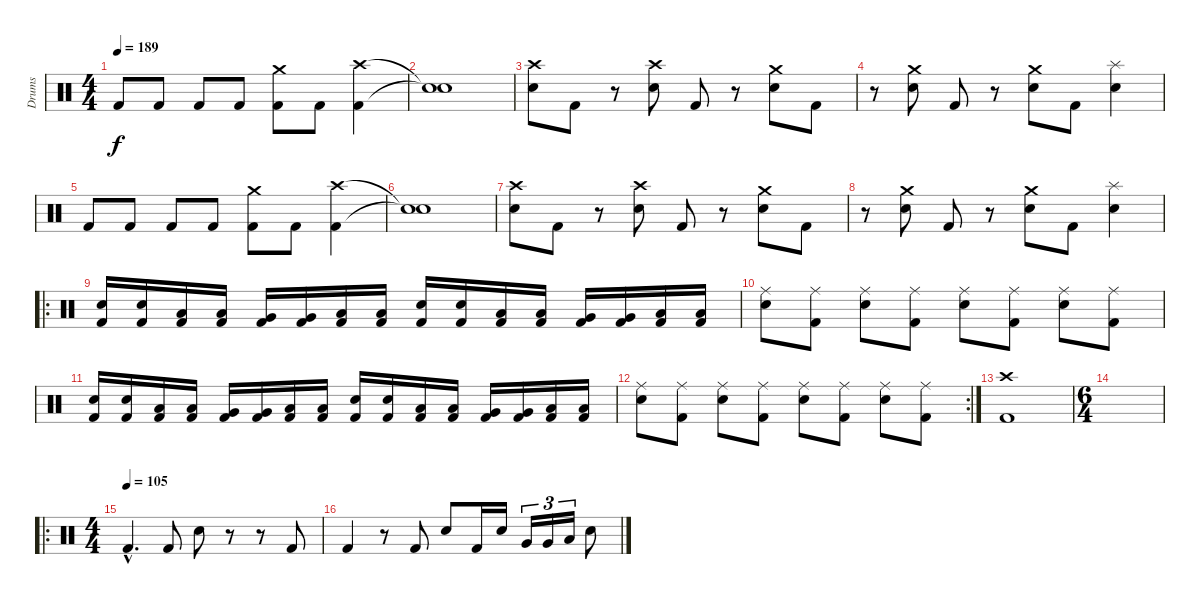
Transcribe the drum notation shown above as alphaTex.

\track ("Drums" "Drums") {instrument percussion}
\staff {score}
\articulation defaults
\ts (4 4)
\tempo 189
\clef neutral
\ks c "Kick (hit) 2".8{dy f} "Kick (hit) 2".8 "Kick (hit) 2".8 "Kick (hit) 2".8
("Crash medium (hit)" "Kick (hit) 2").8 "Kick (hit) 2".8 ("Crash high (hit)" "Kick (hit) 2").4 |
("Snare (hit)"{t} "Snare (hit)"{t}).1 |
("Crash high (hit)" "Electric Snare (hit)").8 "Kick (hit) 2".8 r.8 ("Crash high (hit)" "Electric Snare (hit)").8 "Kick (hit) 2".8 r.8 ("Crash medium (hit)" "Electric Snare (hit)").8 "Kick (hit) 2".8 |
r.8 ("Crash medium (hit)" "Electric Snare (hit)").8 "Kick (hit) 2".8 r.8 ("Crash medium (hit)" "Electric Snare (hit)").8 "Kick (hit) 2".8 ("Splash (hit)" "Electric Snare (hit)").4 |
"Kick (hit) 2".8 "Kick (hit) 2".8 "Kick (hit) 2".8 "Kick (hit) 2".8 ("Crash medium (hit)" "Kick (hit) 2").8 "Kick (hit) 2".8 ("Crash high (hit)" "Kick (hit) 2").4 |
("Snare (hit)"{t} "Snare (hit)"{t}).1 |
("Crash high (hit)" "Electric Snare (hit)").8 "Kick (hit) 2".8 r.8 ("Crash high (hit)" "Electric Snare (hit)").8 "Kick (hit) 2".8 r.8 ("Crash medium (hit)" "Electric Snare (hit)").8 "Kick (hit) 2".8 |
r.8 ("Crash medium (hit)" "Electric Snare (hit)").8 "Kick (hit) 2".8 r.8 ("Crash medium (hit)" "Electric Snare (hit)").8 "Kick (hit) 2".8 ("Splash (hit)" "Electric Snare (hit)").4 |
\ro
("Electric Snare (hit)" "Kick (hit) 2").16 ("Electric Snare (hit)" "Kick (hit) 2").16 ("Low Tom (hit)" "Kick (hit) 2").16 ("Low Tom (hit)" "Kick (hit) 2").16 ("Very Low Tom (hit)" "Kick (hit) 2").16 ("Very Low Tom (hit)" "Kick (hit) 2").16 ("Low Floor Tom (hit)" "Kick (hit) 2").16 ("Low Floor Tom (hit)" "Kick (hit) 2").16 ("Electric Snare (hit)" "Kick (hit) 2").16 ("Electric Snare (hit)" "Kick (hit) 2").16 ("Low Tom (hit)" "Kick (hit) 2").16 ("Low Tom (hit)" "Kick (hit) 2").16 ("Very Low Tom (hit)" "Kick (hit) 2").16 ("Very Low Tom (hit)" "Kick (hit) 2").16 ("Low Floor Tom (hit)" "Kick (hit) 2").16 ("Low Floor Tom (hit)" "Kick (hit) 2").16 |
("Ride (middle)" "Electric Snare (hit)").8 ("Ride (middle)" "Kick (hit) 2").8 ("Ride (middle)" "Electric Snare (hit)").8 ("Ride (middle)" "Kick (hit) 2").8 ("Ride (middle)" "Electric Snare (hit)").8 ("Ride (middle)" "Kick (hit) 2").8 ("Ride (middle)" "Electric Snare (hit)").8 ("Ride (middle)" "Kick (hit) 2").8 |
("Electric Snare (hit)" "Kick (hit) 2").16 ("Electric Snare (hit)" "Kick (hit) 2").16 ("Low Tom (hit)" "Kick (hit) 2").16 ("Low Tom (hit)" "Kick (hit) 2").16 ("Very Low Tom (hit)" "Kick (hit) 2").16 ("Very Low Tom (hit)" "Kick (hit) 2").16 ("Low Floor Tom (hit)" "Kick (hit) 2").16 ("Low Floor Tom (hit)" "Kick (hit) 2").16 ("Electric Snare (hit)" "Kick (hit) 2").16 ("Electric Snare (hit)" "Kick (hit) 2").16 ("Low Tom (hit)" "Kick (hit) 2").16 ("Low Tom (hit)" "Kick (hit) 2").16 ("Very Low Tom (hit)" "Kick (hit) 2").16 ("Very Low Tom (hit)" "Kick (hit) 2").16 ("Low Floor Tom (hit)" "Kick (hit) 2").16 ("Low Floor Tom (hit)" "Kick (hit) 2").16 |
\rc 2
("Ride (middle)" "Electric Snare (hit)").8 ("Ride (middle)" "Kick (hit) 2").8 ("Ride (middle)" "Electric Snare (hit)").8 ("Ride (middle)" "Kick (hit) 2").8 ("Ride (middle)" "Electric Snare (hit)").8 ("Ride (middle)" "Kick (hit) 2").8 ("Ride (middle)" "Electric Snare (hit)").8 ("Ride (middle)" "Kick (hit) 2").8 |
("Crash high (hit)" "Kick (hit) 2").1 |
\ts (6 4)
|
\ro
\ts (4 4)
\tempo (105)
"Kick (hit) 2"{hac}.4{d} "Kick (hit) 2".8 "Electric Snare (hit)".8 r.8 r.8 "Kick (hit) 2".8 |
"Kick (hit) 2".4 r.8 "Kick (hit) 2".8 "Electric Snare (hit)".8 "Kick (hit) 2".16 "Electric Snare (hit)".16 "Very Low Tom (hit)".16{tu (3 2)} "Very Low Tom (hit)".16{tu (3 2)} "Low Floor Tom (hit)".16{tu (3 2)} "Electric Snare (hit)".8
